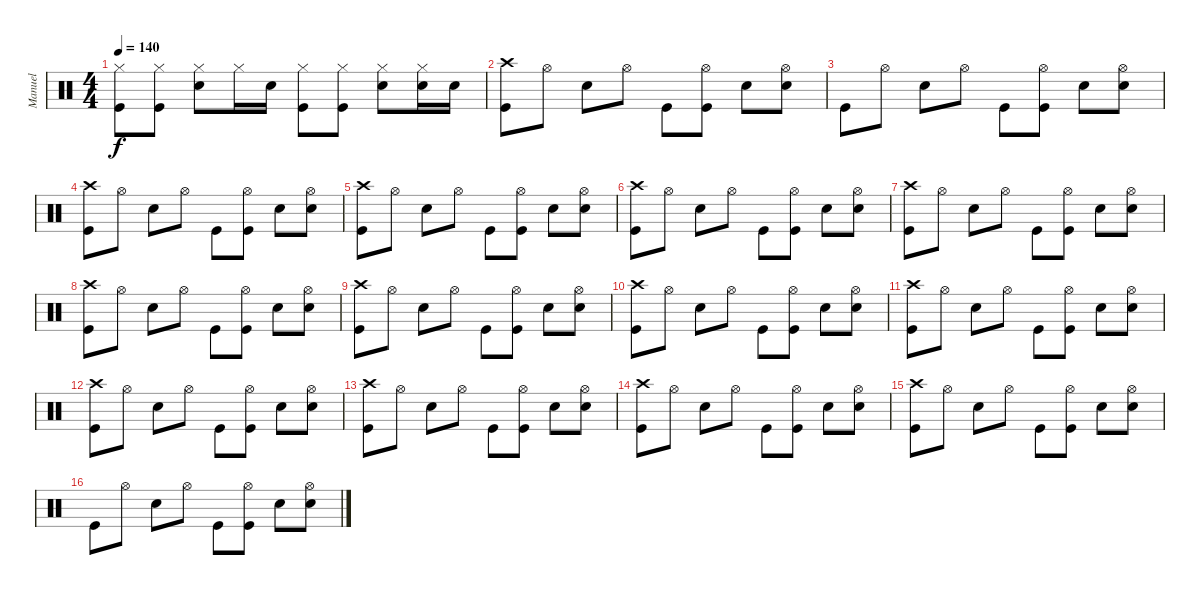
\track ("Manuel" "Manuel") {instrument percussion}
\staff {score}
\articulation defaults
\ts (4 4)
\tempo 140
\clef neutral
\ks c
("Hi-Hat (closed)" "Kick (hit)").8{dy f} ("Hi-Hat (closed)" "Kick (hit)").8 ("Hi-Hat (closed)" "Snare (hit) 2").8 "Hi-Hat (closed)".16 "Snare (hit) 2".16 ("Hi-Hat (closed)" "Kick (hit)").8 ("Hi-Hat (closed)" "Kick (hit)").8 ("Hi-Hat (closed)" "Snare (hit) 2").8 ("Hi-Hat (closed)" "Snare (hit) 2").16 "Snare (hit) 2".16 |
("Crash high (hit)" "Kick (hit)").8 "Hi-Hat (open)".8 "Electric Snare (hit)".8 "Hi-Hat (open)".8 "Kick (hit)".8 ("Kick (hit)" "Hi-Hat (open)").8 "Electric Snare (hit)".8 ("Electric Snare (hit)" "Hi-Hat (open)").8 |
"Kick (hit)".8 "Hi-Hat (open)".8 "Electric Snare (hit)".8 "Hi-Hat (open)".8 "Kick (hit)".8 ("Kick (hit)" "Hi-Hat (open)").8 "Electric Snare (hit)".8 ("Electric Snare (hit)" "Hi-Hat (open)").8 |
("Crash high (hit)" "Kick (hit)").8 "Hi-Hat (open)".8 "Electric Snare (hit)".8 "Hi-Hat (open)".8 "Kick (hit)".8 ("Kick (hit)" "Hi-Hat (open)").8 "Electric Snare (hit)".8 ("Electric Snare (hit)" "Hi-Hat (open)").8 |
("Crash high (hit)" "Kick (hit)").8 "Hi-Hat (open)".8 "Electric Snare (hit)".8 "Hi-Hat (open)".8 "Kick (hit)".8 ("Kick (hit)" "Hi-Hat (open)").8 "Electric Snare (hit)".8 ("Electric Snare (hit)" "Hi-Hat (open)").8 |
("Crash high (hit)" "Kick (hit)").8 "Hi-Hat (open)".8 "Electric Snare (hit)".8 "Hi-Hat (open)".8 "Kick (hit)".8 ("Kick (hit)" "Hi-Hat (open)").8 "Electric Snare (hit)".8 ("Electric Snare (hit)" "Hi-Hat (open)").8 |
("Crash high (hit)" "Kick (hit)").8 "Hi-Hat (open)".8 "Electric Snare (hit)".8 "Hi-Hat (open)".8 "Kick (hit)".8 ("Kick (hit)" "Hi-Hat (open)").8 "Electric Snare (hit)".8 ("Electric Snare (hit)" "Hi-Hat (open)").8 |
("Crash high (hit)" "Kick (hit)").8 "Hi-Hat (open)".8 "Electric Snare (hit)".8 "Hi-Hat (open)".8 "Kick (hit)".8 ("Kick (hit)" "Hi-Hat (open)").8 "Electric Snare (hit)".8 ("Electric Snare (hit)" "Hi-Hat (open)").8 |
("Crash high (hit)" "Kick (hit)").8 "Hi-Hat (open)".8 "Electric Snare (hit)".8 "Hi-Hat (open)".8 "Kick (hit)".8 ("Kick (hit)" "Hi-Hat (open)").8 "Electric Snare (hit)".8 ("Electric Snare (hit)" "Hi-Hat (open)").8 |
("Crash high (hit)" "Kick (hit)").8 "Hi-Hat (open)".8 "Electric Snare (hit)".8 "Hi-Hat (open)".8 "Kick (hit)".8 ("Kick (hit)" "Hi-Hat (open)").8 "Electric Snare (hit)".8 ("Electric Snare (hit)" "Hi-Hat (open)").8 |
("Crash high (hit)" "Kick (hit)").8 "Hi-Hat (open)".8 "Electric Snare (hit)".8 "Hi-Hat (open)".8 "Kick (hit)".8 ("Kick (hit)" "Hi-Hat (open)").8 "Electric Snare (hit)".8 ("Electric Snare (hit)" "Hi-Hat (open)").8 |
("Crash high (hit)" "Kick (hit)").8 "Hi-Hat (open)".8 "Electric Snare (hit)".8 "Hi-Hat (open)".8 "Kick (hit)".8 ("Kick (hit)" "Hi-Hat (open)").8 "Electric Snare (hit)".8 ("Electric Snare (hit)" "Hi-Hat (open)").8 |
("Crash high (hit)" "Kick (hit)").8 "Hi-Hat (open)".8 "Electric Snare (hit)".8 "Hi-Hat (open)".8 "Kick (hit)".8 ("Kick (hit)" "Hi-Hat (open)").8 "Electric Snare (hit)".8 ("Electric Snare (hit)" "Hi-Hat (open)").8 |
("Crash high (hit)" "Kick (hit)").8 "Hi-Hat (open)".8 "Electric Snare (hit)".8 "Hi-Hat (open)".8 "Kick (hit)".8 ("Kick (hit)" "Hi-Hat (open)").8 "Electric Snare (hit)".8 ("Electric Snare (hit)" "Hi-Hat (open)").8 |
("Crash high (hit)" "Kick (hit)").8 "Hi-Hat (open)".8 "Electric Snare (hit)".8 "Hi-Hat (open)".8 "Kick (hit)".8 ("Kick (hit)" "Hi-Hat (open)").8 "Electric Snare (hit)".8 ("Electric Snare (hit)" "Hi-Hat (open)").8 |
"Kick (hit)".8 "Hi-Hat (open)".8 "Electric Snare (hit)".8 "Hi-Hat (open)".8 "Kick (hit)".8 ("Kick (hit)" "Hi-Hat (open)").8 "Electric Snare (hit)".8 ("Electric Snare (hit)" "Hi-Hat (open)").8
